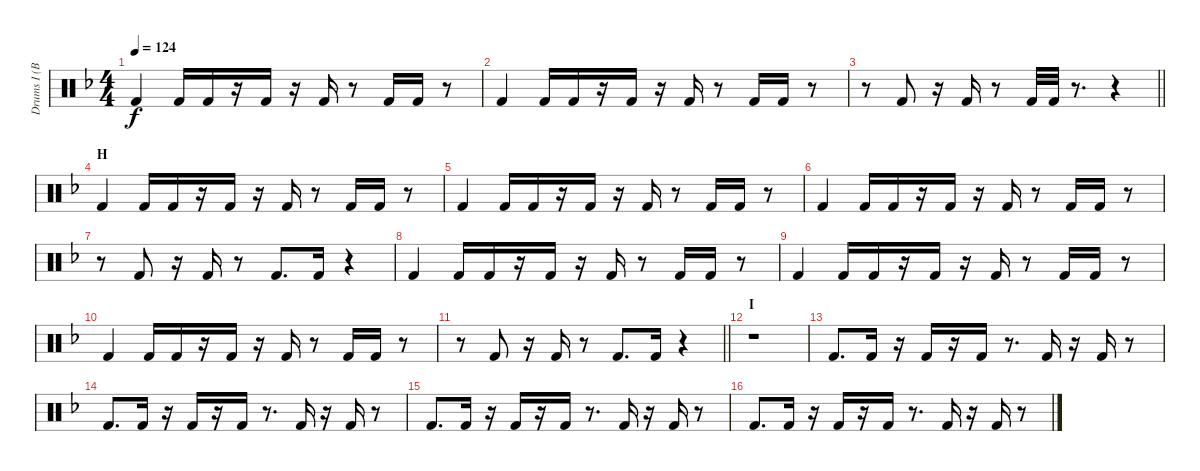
\track ("Drums I (Bass Drums) (RUKA)" "Drums I (B") {instrument percussion}
\staff {score}
\articulation defaults
\ts (4 4)
\tempo 124
\clef neutral
\ks f "Kick (hit) 2".4{dy f} "Kick (hit) 2".16 "Kick (hit) 2".16
r.16 "Kick (hit) 2".16 r.16 "Kick (hit) 2".16 r.8 "Kick (hit) 2".16 "Kick (hit) 2".16 r.8 |
"Kick (hit) 2".4 "Kick (hit) 2".16 "Kick (hit) 2".16 r.16 "Kick (hit) 2".16 r.16 "Kick (hit) 2".16 r.8 "Kick (hit) 2".16 "Kick (hit) 2".16 r.8 |
\barLineRight lightlight
r.8 "Kick (hit) 2".8 r.16 "Kick (hit) 2".16 r.8 "Kick (hit) 2".32 "Kick (hit) 2".32 r.8{d} r.4 |
\section ("" "H")
"Kick (hit) 2".4 "Kick (hit) 2".16 "Kick (hit) 2".16 r.16 "Kick (hit) 2".16 r.16 "Kick (hit) 2".16 r.8 "Kick (hit) 2".16 "Kick (hit) 2".16 r.8 |
"Kick (hit) 2".4 "Kick (hit) 2".16 "Kick (hit) 2".16 r.16 "Kick (hit) 2".16 r.16 "Kick (hit) 2".16 r.8 "Kick (hit) 2".16 "Kick (hit) 2".16 r.8 |
"Kick (hit) 2".4 "Kick (hit) 2".16 "Kick (hit) 2".16 r.16 "Kick (hit) 2".16 r.16 "Kick (hit) 2".16 r.8 "Kick (hit) 2".16 "Kick (hit) 2".16 r.8 |
r.8 "Kick (hit) 2".8 r.16 "Kick (hit) 2".16 r.8 "Kick (hit) 2".8{d} "Kick (hit) 2".16 r.4 |
"Kick (hit) 2".4 "Kick (hit) 2".16 "Kick (hit) 2".16 r.16 "Kick (hit) 2".16 r.16 "Kick (hit) 2".16 r.8 "Kick (hit) 2".16 "Kick (hit) 2".16 r.8 |
"Kick (hit) 2".4 "Kick (hit) 2".16 "Kick (hit) 2".16 r.16 "Kick (hit) 2".16 r.16 "Kick (hit) 2".16 r.8 "Kick (hit) 2".16 "Kick (hit) 2".16 r.8 |
"Kick (hit) 2".4 "Kick (hit) 2".16 "Kick (hit) 2".16 r.16 "Kick (hit) 2".16 r.16 "Kick (hit) 2".16 r.8 "Kick (hit) 2".16 "Kick (hit) 2".16 r.8 |
\barLineRight lightlight
r.8 "Kick (hit) 2".8 r.16 "Kick (hit) 2".16 r.8 "Kick (hit) 2".8{d} "Kick (hit) 2".16 r.4 |
\section ("" "I")
r.1 |
"Kick (hit) 2".8{d} "Kick (hit) 2".16 r.16 "Kick (hit) 2".16 r.16 "Kick (hit) 2".16 r.8{d} "Kick (hit) 2".16 r.16 "Kick (hit) 2".16 r.8 |
"Kick (hit) 2".8{d} "Kick (hit) 2".16 r.16 "Kick (hit) 2".16 r.16 "Kick (hit) 2".16 r.8{d} "Kick (hit) 2".16 r.16 "Kick (hit) 2".16 r.8 |
"Kick (hit) 2".8{d} "Kick (hit) 2".16 r.16 "Kick (hit) 2".16 r.16 "Kick (hit) 2".16 r.8{d} "Kick (hit) 2".16 r.16 "Kick (hit) 2".16 r.8 |
"Kick (hit) 2".8{d} "Kick (hit) 2".16 r.16 "Kick (hit) 2".16 r.16 "Kick (hit) 2".16 r.8{d} "Kick (hit) 2".16 r.16 "Kick (hit) 2".16 r.8
